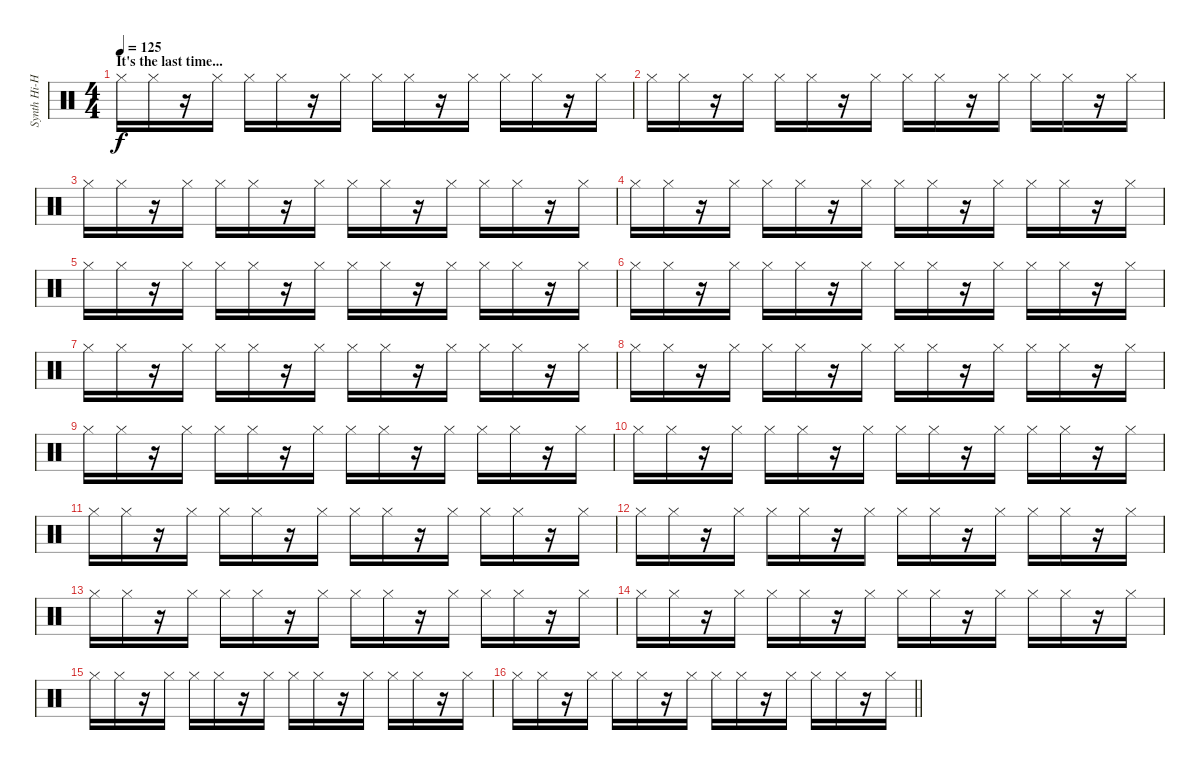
\track ("Synth Hi-Hat (Gillian Gilbert)" "Synth Hi-H") {instrument percussion}
\staff {score}
\articulation defaults
\ts (4 4)
\section ("" "It's the last time...")
\tempo 125
\clef neutral
\ks c "Hi-Hat (closed)".16{dy f} "Hi-Hat (closed)".16
r.16 "Hi-Hat (closed)".16 "Hi-Hat (closed)".16 "Hi-Hat (closed)".16 r.16 "Hi-Hat (closed)".16 "Hi-Hat (closed)".16 "Hi-Hat (closed)".16 r.16 "Hi-Hat (closed)".16 "Hi-Hat (closed)".16 "Hi-Hat (closed)".16 r.16 "Hi-Hat (closed)".16 |
"Hi-Hat (closed)".16 "Hi-Hat (closed)".16 r.16 "Hi-Hat (closed)".16 "Hi-Hat (closed)".16 "Hi-Hat (closed)".16 r.16 "Hi-Hat (closed)".16 "Hi-Hat (closed)".16 "Hi-Hat (closed)".16 r.16 "Hi-Hat (closed)".16 "Hi-Hat (closed)".16 "Hi-Hat (closed)".16 r.16 "Hi-Hat (closed)".16 |
"Hi-Hat (closed)".16 "Hi-Hat (closed)".16 r.16 "Hi-Hat (closed)".16 "Hi-Hat (closed)".16 "Hi-Hat (closed)".16 r.16 "Hi-Hat (closed)".16 "Hi-Hat (closed)".16 "Hi-Hat (closed)".16 r.16 "Hi-Hat (closed)".16 "Hi-Hat (closed)".16 "Hi-Hat (closed)".16 r.16 "Hi-Hat (closed)".16 |
"Hi-Hat (closed)".16 "Hi-Hat (closed)".16 r.16 "Hi-Hat (closed)".16 "Hi-Hat (closed)".16 "Hi-Hat (closed)".16 r.16 "Hi-Hat (closed)".16 "Hi-Hat (closed)".16 "Hi-Hat (closed)".16 r.16 "Hi-Hat (closed)".16 "Hi-Hat (closed)".16 "Hi-Hat (closed)".16 r.16 "Hi-Hat (closed)".16 |
"Hi-Hat (closed)".16 "Hi-Hat (closed)".16 r.16 "Hi-Hat (closed)".16 "Hi-Hat (closed)".16 "Hi-Hat (closed)".16 r.16 "Hi-Hat (closed)".16 "Hi-Hat (closed)".16 "Hi-Hat (closed)".16 r.16 "Hi-Hat (closed)".16 "Hi-Hat (closed)".16 "Hi-Hat (closed)".16 r.16 "Hi-Hat (closed)".16 |
"Hi-Hat (closed)".16 "Hi-Hat (closed)".16 r.16 "Hi-Hat (closed)".16 "Hi-Hat (closed)".16 "Hi-Hat (closed)".16 r.16 "Hi-Hat (closed)".16 "Hi-Hat (closed)".16 "Hi-Hat (closed)".16 r.16 "Hi-Hat (closed)".16 "Hi-Hat (closed)".16 "Hi-Hat (closed)".16 r.16 "Hi-Hat (closed)".16 |
"Hi-Hat (closed)".16 "Hi-Hat (closed)".16 r.16 "Hi-Hat (closed)".16 "Hi-Hat (closed)".16 "Hi-Hat (closed)".16 r.16 "Hi-Hat (closed)".16 "Hi-Hat (closed)".16 "Hi-Hat (closed)".16 r.16 "Hi-Hat (closed)".16 "Hi-Hat (closed)".16 "Hi-Hat (closed)".16 r.16 "Hi-Hat (closed)".16 |
"Hi-Hat (closed)".16 "Hi-Hat (closed)".16 r.16 "Hi-Hat (closed)".16 "Hi-Hat (closed)".16 "Hi-Hat (closed)".16 r.16 "Hi-Hat (closed)".16 "Hi-Hat (closed)".16 "Hi-Hat (closed)".16 r.16 "Hi-Hat (closed)".16 "Hi-Hat (closed)".16 "Hi-Hat (closed)".16 r.16 "Hi-Hat (closed)".16 |
"Hi-Hat (closed)".16 "Hi-Hat (closed)".16 r.16 "Hi-Hat (closed)".16 "Hi-Hat (closed)".16 "Hi-Hat (closed)".16 r.16 "Hi-Hat (closed)".16 "Hi-Hat (closed)".16 "Hi-Hat (closed)".16 r.16 "Hi-Hat (closed)".16 "Hi-Hat (closed)".16 "Hi-Hat (closed)".16 r.16 "Hi-Hat (closed)".16 |
"Hi-Hat (closed)".16 "Hi-Hat (closed)".16 r.16 "Hi-Hat (closed)".16 "Hi-Hat (closed)".16 "Hi-Hat (closed)".16 r.16 "Hi-Hat (closed)".16 "Hi-Hat (closed)".16 "Hi-Hat (closed)".16 r.16 "Hi-Hat (closed)".16 "Hi-Hat (closed)".16 "Hi-Hat (closed)".16 r.16 "Hi-Hat (closed)".16 |
"Hi-Hat (closed)".16 "Hi-Hat (closed)".16 r.16 "Hi-Hat (closed)".16 "Hi-Hat (closed)".16 "Hi-Hat (closed)".16 r.16 "Hi-Hat (closed)".16 "Hi-Hat (closed)".16 "Hi-Hat (closed)".16 r.16 "Hi-Hat (closed)".16 "Hi-Hat (closed)".16 "Hi-Hat (closed)".16 r.16 "Hi-Hat (closed)".16 |
"Hi-Hat (closed)".16 "Hi-Hat (closed)".16 r.16 "Hi-Hat (closed)".16 "Hi-Hat (closed)".16 "Hi-Hat (closed)".16 r.16 "Hi-Hat (closed)".16 "Hi-Hat (closed)".16 "Hi-Hat (closed)".16 r.16 "Hi-Hat (closed)".16 "Hi-Hat (closed)".16 "Hi-Hat (closed)".16 r.16 "Hi-Hat (closed)".16 |
"Hi-Hat (closed)".16 "Hi-Hat (closed)".16 r.16 "Hi-Hat (closed)".16 "Hi-Hat (closed)".16 "Hi-Hat (closed)".16 r.16 "Hi-Hat (closed)".16 "Hi-Hat (closed)".16 "Hi-Hat (closed)".16 r.16 "Hi-Hat (closed)".16 "Hi-Hat (closed)".16 "Hi-Hat (closed)".16 r.16 "Hi-Hat (closed)".16 |
"Hi-Hat (closed)".16 "Hi-Hat (closed)".16 r.16 "Hi-Hat (closed)".16 "Hi-Hat (closed)".16 "Hi-Hat (closed)".16 r.16 "Hi-Hat (closed)".16 "Hi-Hat (closed)".16 "Hi-Hat (closed)".16 r.16 "Hi-Hat (closed)".16 "Hi-Hat (closed)".16 "Hi-Hat (closed)".16 r.16 "Hi-Hat (closed)".16 |
"Hi-Hat (closed)".16 "Hi-Hat (closed)".16 r.16 "Hi-Hat (closed)".16 "Hi-Hat (closed)".16 "Hi-Hat (closed)".16 r.16 "Hi-Hat (closed)".16 "Hi-Hat (closed)".16 "Hi-Hat (closed)".16 r.16 "Hi-Hat (closed)".16 "Hi-Hat (closed)".16 "Hi-Hat (closed)".16 r.16 "Hi-Hat (closed)".16 |
\barLineRight lightlight "Hi-Hat (closed)".16 "Hi-Hat (closed)".16
r.16 "Hi-Hat (closed)".16 "Hi-Hat (closed)".16 "Hi-Hat (closed)".16 r.16 "Hi-Hat (closed)".16 "Hi-Hat (closed)".16 "Hi-Hat (closed)".16 r.16 "Hi-Hat (closed)".16 "Hi-Hat (closed)".16 "Hi-Hat (closed)".16 r.16 "Hi-Hat (closed)".16
